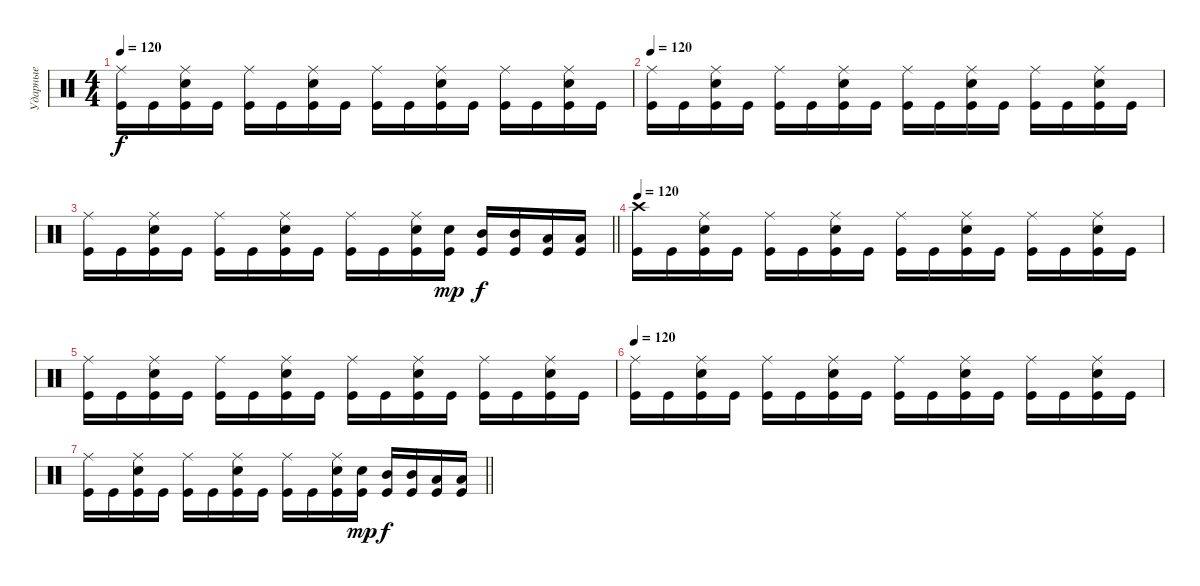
\track ("Ударные" "Ударные") {instrument percussion}
\staff {score}
\articulation defaults
\ts (4 4)
\tempo 120
\clef neutral
\ks c
("Ride (middle)" "Kick (hit)").16{dy f} "Kick (hit)".16 ("Ride (middle)" "Electric Snare (hit)" "Kick (hit)").16 "Kick (hit)".16 ("Ride (middle)" "Kick (hit)").16 "Kick (hit)".16 ("Ride (middle)" "Electric Snare (hit)" "Kick (hit)").16 "Kick (hit)".16 ("Ride (middle)" "Kick (hit)").16 "Kick (hit)".16 ("Ride (middle)" "Electric Snare (hit)" "Kick (hit)").16 "Kick (hit)".16 ("Ride (middle)" "Kick (hit)").16 "Kick (hit)".16 ("Ride (middle)" "Electric Snare (hit)" "Kick (hit)").16 "Kick (hit)".16 |
\tempo 120
("Ride (middle)" "Kick (hit)").16 "Kick (hit)".16 ("Ride (middle)" "Electric Snare (hit)" "Kick (hit)").16 "Kick (hit)".16 ("Ride (middle)" "Kick (hit)").16 "Kick (hit)".16 ("Ride (middle)" "Electric Snare (hit)" "Kick (hit)").16 "Kick (hit)".16 ("Ride (middle)" "Kick (hit)").16 "Kick (hit)".16 ("Ride (middle)" "Electric Snare (hit)" "Kick (hit)").16 "Kick (hit)".16 ("Ride (middle)" "Kick (hit)").16 "Kick (hit)".16 ("Ride (middle)" "Electric Snare (hit)" "Kick (hit)").16 "Kick (hit)".16 |
\barLineRight lightlight
("Ride (middle)" "Kick (hit)").16 "Kick (hit)".16 ("Ride (middle)" "Electric Snare (hit)" "Kick (hit)").16 "Kick (hit)".16 ("Ride (middle)" "Kick (hit)").16 "Kick (hit)".16 ("Ride (middle)" "Electric Snare (hit)" "Kick (hit)").16 "Kick (hit)".16 ("Ride (middle)" "Kick (hit)").16 "Kick (hit)".16 ("Ride (middle)" "Electric Snare (hit)" "Kick (hit)").16 ("Electric Snare (hit)" "Kick (hit)").16{dy mp} ("Mid Tom (hit)" "Kick (hit)").16{dy f} ("Mid Tom (hit)" "Kick (hit)").16 ("Low Tom (hit)" "Kick (hit)").16 ("Low Tom (hit)" "Kick (hit)").16 |
\tempo 120
("Crash high (hit)" "Kick (hit)").16 "Kick (hit)".16 ("Ride (middle)" "Electric Snare (hit)" "Kick (hit)").16 "Kick (hit)".16 ("Ride (middle)" "Kick (hit)").16 "Kick (hit)".16 ("Ride (middle)" "Electric Snare (hit)" "Kick (hit)").16 "Kick (hit)".16 ("Ride (middle)" "Kick (hit)").16 "Kick (hit)".16 ("Ride (middle)" "Electric Snare (hit)" "Kick (hit)").16 "Kick (hit)".16 ("Ride (middle)" "Kick (hit)").16 "Kick (hit)".16 ("Ride (middle)" "Electric Snare (hit)" "Kick (hit)").16 "Kick (hit)".16 |
("Ride (middle)" "Kick (hit)").16 "Kick (hit)".16 ("Ride (middle)" "Electric Snare (hit)" "Kick (hit)").16 "Kick (hit)".16 ("Ride (middle)" "Kick (hit)").16 "Kick (hit)".16 ("Ride (middle)" "Electric Snare (hit)" "Kick (hit)").16 "Kick (hit)".16 ("Ride (middle)" "Kick (hit)").16 "Kick (hit)".16 ("Ride (middle)" "Electric Snare (hit)" "Kick (hit)").16 "Kick (hit)".16 ("Ride (middle)" "Kick (hit)").16 "Kick (hit)".16 ("Ride (middle)" "Electric Snare (hit)" "Kick (hit)").16 "Kick (hit)".16 |
\tempo 120
("Ride (middle)" "Kick (hit)").16 "Kick (hit)".16 ("Ride (middle)" "Electric Snare (hit)" "Kick (hit)").16 "Kick (hit)".16 ("Ride (middle)" "Kick (hit)").16 "Kick (hit)".16 ("Ride (middle)" "Electric Snare (hit)" "Kick (hit)").16 "Kick (hit)".16 ("Ride (middle)" "Kick (hit)").16 "Kick (hit)".16 ("Ride (middle)" "Electric Snare (hit)" "Kick (hit)").16 "Kick (hit)".16 ("Ride (middle)" "Kick (hit)").16 "Kick (hit)".16 ("Ride (middle)" "Electric Snare (hit)" "Kick (hit)").16 "Kick (hit)".16 |
\barLineRight lightlight
("Ride (middle)" "Kick (hit)").16 "Kick (hit)".16 ("Ride (middle)" "Electric Snare (hit)" "Kick (hit)").16 "Kick (hit)".16 ("Ride (middle)" "Kick (hit)").16 "Kick (hit)".16 ("Ride (middle)" "Electric Snare (hit)" "Kick (hit)").16 "Kick (hit)".16 ("Ride (middle)" "Kick (hit)").16 "Kick (hit)".16 ("Ride (middle)" "Electric Snare (hit)" "Kick (hit)").16 ("Electric Snare (hit)" "Kick (hit)").16{dy mp} ("Mid Tom (hit)" "Kick (hit)").16{dy f} ("Mid Tom (hit)" "Kick (hit)").16 ("Low Tom (hit)" "Kick (hit)").16 ("Low Tom (hit)" "Kick (hit)").16
